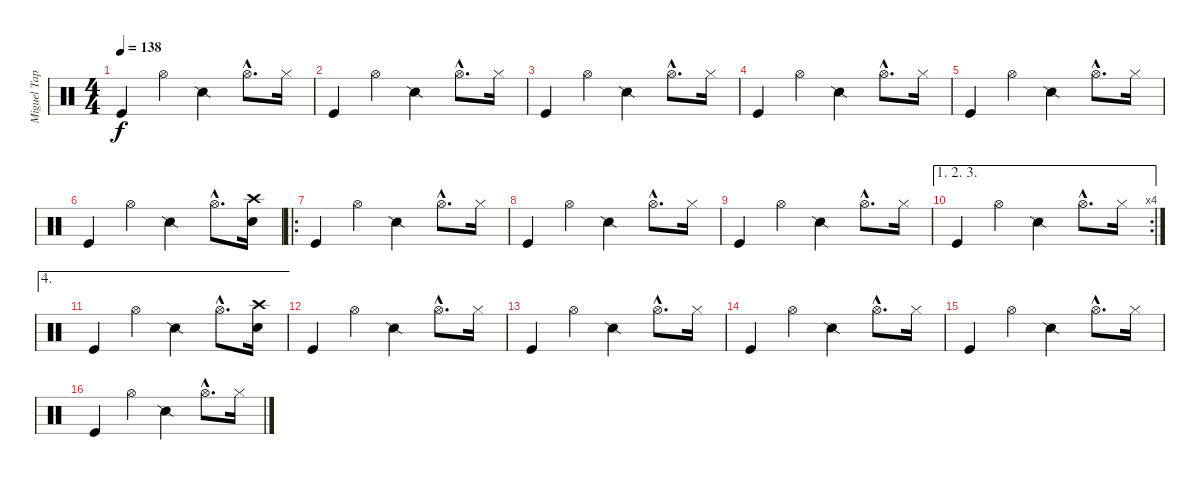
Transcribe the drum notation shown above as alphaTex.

\track ("Miguel Tapia (batería)" "Miguel Tap") {instrument percussion}
\staff {score}
\articulation defaults
\ts (4 4)
\tempo 138
\clef neutral
\ks c "Kick (hit)".4{dy f} "Hi-Hat (open)".4 "Snare (side stick) 2".4 "Hi-Hat (open)"{hac}.8{d} "Hi-Hat (closed)".16
|
"Kick (hit)".4 "Hi-Hat (open)".4 "Snare (side stick) 2".4 "Hi-Hat (open)"{hac}.8{d} "Hi-Hat (closed)".16 |
"Kick (hit)".4 "Hi-Hat (open)".4 "Snare (side stick) 2".4 "Hi-Hat (open)"{hac}.8{d} "Hi-Hat (closed)".16 |
"Kick (hit)".4 "Hi-Hat (open)".4 "Snare (side stick) 2".4 "Hi-Hat (open)"{hac}.8{d} "Hi-Hat (closed)".16 |
"Kick (hit)".4 "Hi-Hat (open)".4 "Snare (side stick) 2".4 "Hi-Hat (open)"{hac}.8{d} "Hi-Hat (closed)".16 |
"Kick (hit)".4 "Hi-Hat (open)".4 "Snare (side stick) 2".4 "Hi-Hat (open)"{hac}.8{d} ("Crash high (hit)" "Snare (hit) 2").16 |
\ro "Kick (hit)".4 "Hi-Hat (open)".4 "Snare (side stick) 2".4 "Hi-Hat (open)"{hac}.8{d} "Hi-Hat (closed)".16
|
"Kick (hit)".4 "Hi-Hat (open)".4 "Snare (side stick) 2".4 "Hi-Hat (open)"{hac}.8{d} "Hi-Hat (closed)".16 |
"Kick (hit)".4 "Hi-Hat (open)".4 "Snare (side stick) 2".4 "Hi-Hat (open)"{hac}.8{d} "Hi-Hat (closed)".16 |
\ae (1 2 3)
\rc 4 "Kick (hit)".4 "Hi-Hat (open)".4 "Snare (side stick) 2".4 "Hi-Hat (open)"{hac}.8{d} "Hi-Hat (closed)".16
|
\ae 4 "Kick (hit)".4 "Hi-Hat (open)".4 "Snare (side stick) 2".4 "Hi-Hat (open)"{hac}.8{d}
("Crash high (hit)" "Snare (hit) 2").16 |
"Kick (hit)".4 "Hi-Hat (open)".4 "Snare (side stick) 2".4 "Hi-Hat (open)"{hac}.8{d} "Hi-Hat (closed)".16 |
"Kick (hit)".4 "Hi-Hat (open)".4 "Snare (side stick) 2".4 "Hi-Hat (open)"{hac}.8{d} "Hi-Hat (closed)".16 |
"Kick (hit)".4 "Hi-Hat (open)".4 "Snare (side stick) 2".4 "Hi-Hat (open)"{hac}.8{d} "Hi-Hat (closed)".16 |
"Kick (hit)".4 "Hi-Hat (open)".4 "Snare (side stick) 2".4 "Hi-Hat (open)"{hac}.8{d} "Hi-Hat (closed)".16 |
"Kick (hit)".4 "Hi-Hat (open)".4 "Snare (side stick) 2".4 "Hi-Hat (open)"{hac}.8{d} "Hi-Hat (closed)".16
